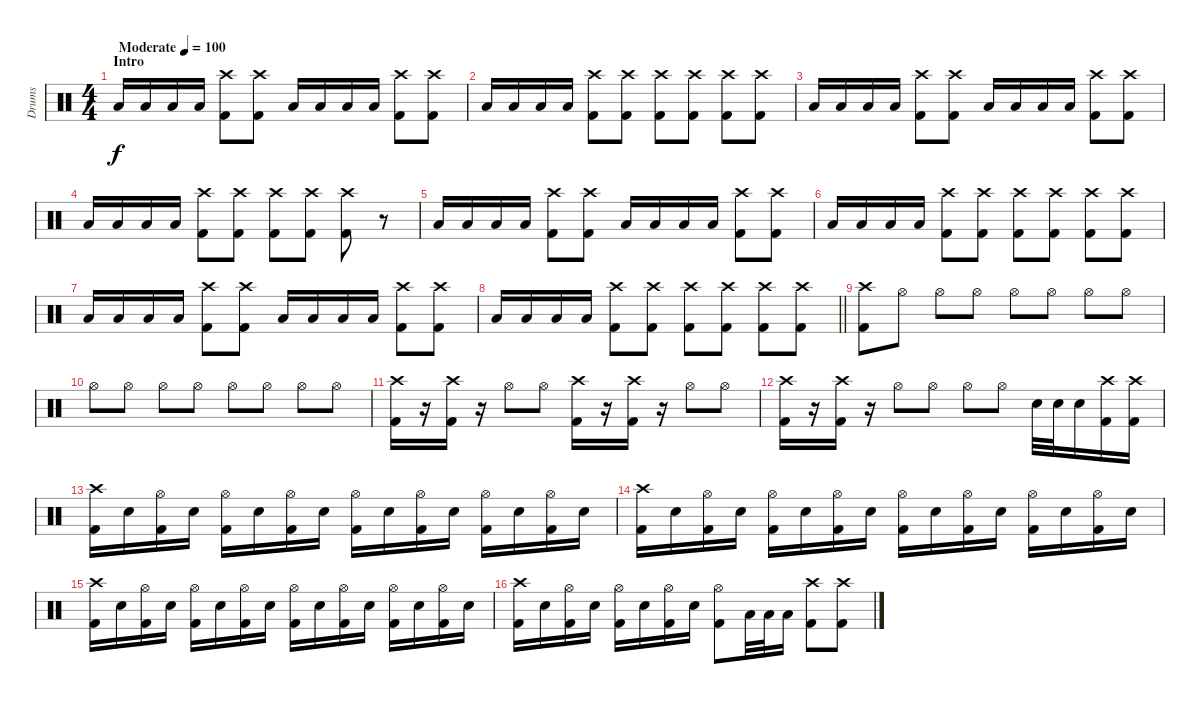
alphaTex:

\track ("Drums" "Drums") {instrument percussion}
\staff {score}
\articulation defaults
\ts (4 4)
\section ("" "Intro")
\tempo (100 "Moderate")
\clef neutral
\ks c "Low Floor Tom (hit)".16{dy f} "Low Floor Tom (hit)".16 "Low Floor Tom (hit)".16 "Low Floor Tom (hit)".16
("Crash high (hit)" "Kick (hit) 2").8 ("Crash high (hit)" "Kick (hit) 2").8 "Low Floor Tom (hit)".16 "Low Floor Tom (hit)".16 "Low Floor Tom (hit)".16 "Low Floor Tom (hit)".16 ("Crash high (hit)" "Kick (hit) 2").8 ("Crash high (hit)" "Kick (hit) 2").8 |
"Low Floor Tom (hit)".16 "Low Floor Tom (hit)".16 "Low Floor Tom (hit)".16 "Low Floor Tom (hit)".16 ("Crash high (hit)" "Kick (hit) 2").8 ("Crash high (hit)" "Kick (hit) 2").8 ("Crash high (hit)" "Kick (hit) 2").8 ("Crash high (hit)" "Kick (hit) 2").8 ("Crash high (hit)" "Kick (hit) 2").8 ("Crash high (hit)" "Kick (hit) 2").8 |
"Low Floor Tom (hit)".16 "Low Floor Tom (hit)".16 "Low Floor Tom (hit)".16 "Low Floor Tom (hit)".16 ("Crash high (hit)" "Kick (hit) 2").8 ("Crash high (hit)" "Kick (hit) 2").8 "Low Floor Tom (hit)".16 "Low Floor Tom (hit)".16 "Low Floor Tom (hit)".16 "Low Floor Tom (hit)".16 ("Crash high (hit)" "Kick (hit) 2").8 ("Crash high (hit)" "Kick (hit) 2").8 |
"Low Floor Tom (hit)".16 "Low Floor Tom (hit)".16 "Low Floor Tom (hit)".16 "Low Floor Tom (hit)".16 ("Crash high (hit)" "Kick (hit) 2").8 ("Crash high (hit)" "Kick (hit) 2").8 ("Crash high (hit)" "Kick (hit) 2").8 ("Crash high (hit)" "Kick (hit) 2").8 ("Crash high (hit)" "Kick (hit) 2").8 r.8 |
"Low Floor Tom (hit)".16 "Low Floor Tom (hit)".16 "Low Floor Tom (hit)".16 "Low Floor Tom (hit)".16 ("Crash high (hit)" "Kick (hit) 2").8 ("Crash high (hit)" "Kick (hit) 2").8 "Low Floor Tom (hit)".16 "Low Floor Tom (hit)".16 "Low Floor Tom (hit)".16 "Low Floor Tom (hit)".16 ("Crash high (hit)" "Kick (hit) 2").8 ("Crash high (hit)" "Kick (hit) 2").8 |
"Low Floor Tom (hit)".16 "Low Floor Tom (hit)".16 "Low Floor Tom (hit)".16 "Low Floor Tom (hit)".16 ("Crash high (hit)" "Kick (hit) 2").8 ("Crash high (hit)" "Kick (hit) 2").8 ("Crash high (hit)" "Kick (hit) 2").8 ("Crash high (hit)" "Kick (hit) 2").8 ("Crash high (hit)" "Kick (hit) 2").8 ("Crash high (hit)" "Kick (hit) 2").8 |
"Low Floor Tom (hit)".16 "Low Floor Tom (hit)".16 "Low Floor Tom (hit)".16 "Low Floor Tom (hit)".16 ("Crash high (hit)" "Kick (hit) 2").8 ("Crash high (hit)" "Kick (hit) 2").8 "Low Floor Tom (hit)".16 "Low Floor Tom (hit)".16 "Low Floor Tom (hit)".16 "Low Floor Tom (hit)".16 ("Crash high (hit)" "Kick (hit) 2").8 ("Crash high (hit)" "Kick (hit) 2").8 |
\barLineRight lightlight "Low Floor Tom (hit)".16 "Low Floor Tom (hit)".16 "Low Floor Tom (hit)".16 "Low Floor Tom (hit)".16
("Crash high (hit)" "Kick (hit) 2").8 ("Crash high (hit)" "Kick (hit) 2").8 ("Crash high (hit)" "Kick (hit) 2").8 ("Crash high (hit)" "Kick (hit) 2").8 ("Crash high (hit)" "Kick (hit) 2").8 ("Crash high (hit)" "Kick (hit) 2").8 |
("Crash high (hit)" "Kick (hit) 2").8 "Hi-Hat (open)".8 "Hi-Hat (open)".8 "Hi-Hat (open)".8 "Hi-Hat (open)".8 "Hi-Hat (open)".8 "Hi-Hat (open)".8 "Hi-Hat (open)".8 |
"Hi-Hat (open)".8 "Hi-Hat (open)".8 "Hi-Hat (open)".8 "Hi-Hat (open)".8 "Hi-Hat (open)".8 "Hi-Hat (open)".8 "Hi-Hat (open)".8 "Hi-Hat (open)".8 |
("Crash high (hit)" "Kick (hit) 2").16 r.16 ("Crash high (hit)" "Kick (hit) 2").16 r.16 "Hi-Hat (open)".8 "Hi-Hat (open)".8 ("Crash high (hit)" "Kick (hit) 2").16 r.16 ("Crash high (hit)" "Kick (hit) 2").16 r.16 "Hi-Hat (open)".8 "Hi-Hat (open)".8 |
("Crash high (hit)" "Kick (hit) 2").16 r.16 ("Crash high (hit)" "Kick (hit) 2").16 r.16 "Hi-Hat (open)".8 "Hi-Hat (open)".8 "Hi-Hat (open)".8 "Hi-Hat (open)".8 "Snare (hit) 2".32 "Snare (hit) 2".32 "Snare (hit) 2".16 ("Crash high (hit)" "Kick (hit) 2").16 ("Crash high (hit)" "Kick (hit) 2").16 |
("Crash high (hit)" "Kick (hit) 2").16 "Snare (hit) 2".16 ("Hi-Hat (open)" "Kick (hit) 2").16 "Snare (hit) 2".16 ("Hi-Hat (open)" "Kick (hit) 2").16 "Snare (hit) 2".16 ("Hi-Hat (open)" "Kick (hit) 2").16 "Snare (hit) 2".16 ("Hi-Hat (open)" "Kick (hit) 2").16 "Snare (hit) 2".16 ("Hi-Hat (open)" "Kick (hit) 2").16 "Snare (hit) 2".16 ("Hi-Hat (open)" "Kick (hit) 2").16 "Snare (hit) 2".16 ("Hi-Hat (open)" "Kick (hit) 2").16 "Snare (hit) 2".16 |
("Crash high (hit)" "Kick (hit) 2").16 "Snare (hit) 2".16 ("Hi-Hat (open)" "Kick (hit) 2").16 "Snare (hit) 2".16 ("Hi-Hat (open)" "Kick (hit) 2").16 "Snare (hit) 2".16 ("Hi-Hat (open)" "Kick (hit) 2").16 "Snare (hit) 2".16 ("Hi-Hat (open)" "Kick (hit) 2").16 "Snare (hit) 2".16 ("Hi-Hat (open)" "Kick (hit) 2").16 "Snare (hit) 2".16 ("Hi-Hat (open)" "Kick (hit) 2").16 "Snare (hit) 2".16 ("Hi-Hat (open)" "Kick (hit) 2").16 "Snare (hit) 2".16 |
("Crash high (hit)" "Kick (hit) 2").16 "Snare (hit) 2".16 ("Hi-Hat (open)" "Kick (hit) 2").16 "Snare (hit) 2".16 ("Hi-Hat (open)" "Kick (hit) 2").16 "Snare (hit) 2".16 ("Hi-Hat (open)" "Kick (hit) 2").16 "Snare (hit) 2".16 ("Hi-Hat (open)" "Kick (hit) 2").16 "Snare (hit) 2".16 ("Hi-Hat (open)" "Kick (hit) 2").16 "Snare (hit) 2".16 ("Hi-Hat (open)" "Kick (hit) 2").16 "Snare (hit) 2".16 ("Hi-Hat (open)" "Kick (hit) 2").16 "Snare (hit) 2".16 |
("Crash high (hit)" "Kick (hit) 2").16 "Snare (hit) 2".16 ("Hi-Hat (open)" "Kick (hit) 2").16 "Snare (hit) 2".16 ("Hi-Hat (open)" "Kick (hit) 2").16 "Snare (hit) 2".16 ("Hi-Hat (open)" "Kick (hit) 2").16 "Snare (hit) 2".16 ("Hi-Hat (open)" "Kick (hit) 2").8 "Low Floor Tom (hit)".32 "Low Floor Tom (hit)".32 "Low Floor Tom (hit)".16 ("Crash high (hit)" "Kick (hit) 2").8 ("Crash high (hit)" "Kick (hit) 2").8
